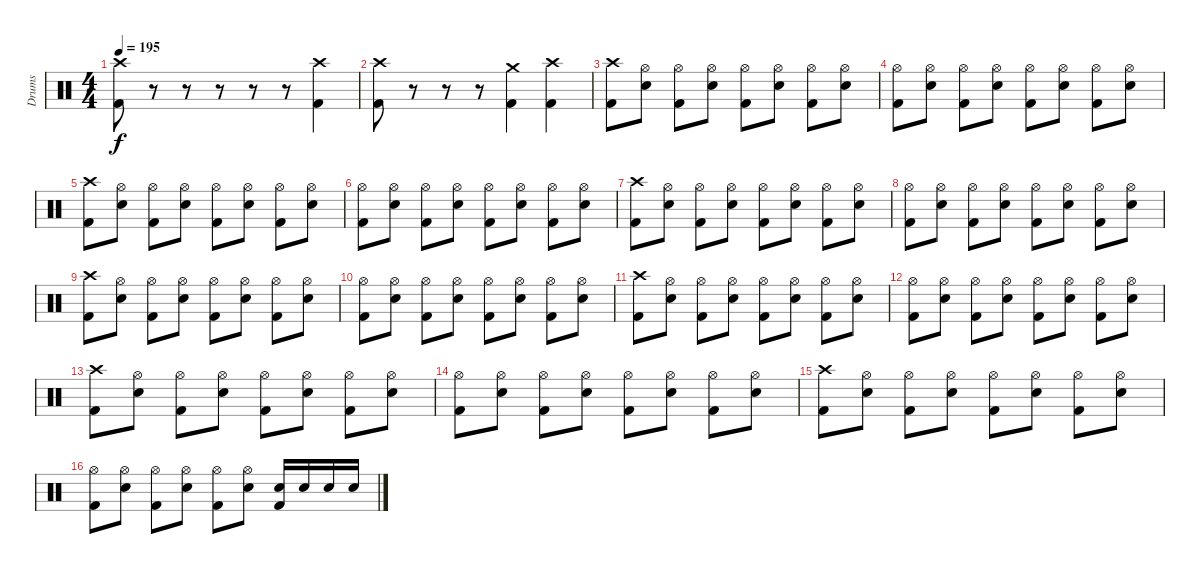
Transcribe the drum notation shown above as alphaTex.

\track ("Drums" "Drums") {instrument percussion}
\staff {score}
\articulation defaults
\ts (4 4)
\tempo 195
\clef neutral
\ks c
("Crash high (hit)" "Kick (hit) 2").8{dy f} r.8 r.8 r.8 r.8 r.8 ("Crash high (hit)" "Kick (hit) 2").4 |
("Crash high (hit)" "Kick (hit) 2").8 r.8 r.8 r.8 ("Crash medium (hit)" "Kick (hit) 2").4 ("Crash high (hit)" "Kick (hit) 2").4 |
("Crash high (hit)" "Kick (hit) 2").8 ("Hi-Hat (open)" "Snare (hit) 2").8 ("Hi-Hat (open)" "Kick (hit) 2").8 ("Hi-Hat (open)" "Snare (hit) 2").8 ("Hi-Hat (open)" "Kick (hit) 2").8 ("Hi-Hat (open)" "Snare (hit) 2").8 ("Hi-Hat (open)" "Kick (hit) 2").8 ("Hi-Hat (open)" "Snare (hit) 2").8 |
("Hi-Hat (open)" "Kick (hit) 2").8 ("Hi-Hat (open)" "Snare (hit) 2").8 ("Hi-Hat (open)" "Kick (hit) 2").8 ("Hi-Hat (open)" "Snare (hit) 2").8 ("Hi-Hat (open)" "Kick (hit) 2").8 ("Hi-Hat (open)" "Snare (hit) 2").8 ("Hi-Hat (open)" "Kick (hit) 2").8 ("Hi-Hat (open)" "Snare (hit) 2").8 |
("Crash high (hit)" "Kick (hit) 2").8 ("Hi-Hat (open)" "Snare (hit) 2").8 ("Hi-Hat (open)" "Kick (hit) 2").8 ("Hi-Hat (open)" "Snare (hit) 2").8 ("Hi-Hat (open)" "Kick (hit) 2").8 ("Hi-Hat (open)" "Snare (hit) 2").8 ("Hi-Hat (open)" "Kick (hit) 2").8 ("Hi-Hat (open)" "Snare (hit) 2").8 |
("Hi-Hat (open)" "Kick (hit) 2").8 ("Hi-Hat (open)" "Snare (hit) 2").8 ("Hi-Hat (open)" "Kick (hit) 2").8 ("Hi-Hat (open)" "Snare (hit) 2").8 ("Hi-Hat (open)" "Kick (hit) 2").8 ("Hi-Hat (open)" "Snare (hit) 2").8 ("Hi-Hat (open)" "Kick (hit) 2").8 ("Hi-Hat (open)" "Snare (hit) 2").8 |
("Crash high (hit)" "Kick (hit) 2").8 ("Hi-Hat (open)" "Snare (hit) 2").8 ("Hi-Hat (open)" "Kick (hit) 2").8 ("Hi-Hat (open)" "Snare (hit) 2").8 ("Hi-Hat (open)" "Kick (hit) 2").8 ("Hi-Hat (open)" "Snare (hit) 2").8 ("Hi-Hat (open)" "Kick (hit) 2").8 ("Hi-Hat (open)" "Snare (hit) 2").8 |
("Hi-Hat (open)" "Kick (hit) 2").8 ("Hi-Hat (open)" "Snare (hit) 2").8 ("Hi-Hat (open)" "Kick (hit) 2").8 ("Hi-Hat (open)" "Snare (hit) 2").8 ("Hi-Hat (open)" "Kick (hit) 2").8 ("Hi-Hat (open)" "Snare (hit) 2").8 ("Hi-Hat (open)" "Kick (hit) 2").8 ("Hi-Hat (open)" "Snare (hit) 2").8 |
("Crash high (hit)" "Kick (hit) 2").8 ("Hi-Hat (open)" "Snare (hit) 2").8 ("Hi-Hat (open)" "Kick (hit) 2").8 ("Hi-Hat (open)" "Snare (hit) 2").8 ("Hi-Hat (open)" "Kick (hit) 2").8 ("Hi-Hat (open)" "Snare (hit) 2").8 ("Hi-Hat (open)" "Kick (hit) 2").8 ("Hi-Hat (open)" "Snare (hit) 2").8 |
("Hi-Hat (open)" "Kick (hit) 2").8 ("Hi-Hat (open)" "Snare (hit) 2").8 ("Hi-Hat (open)" "Kick (hit) 2").8 ("Hi-Hat (open)" "Snare (hit) 2").8 ("Hi-Hat (open)" "Kick (hit) 2").8 ("Hi-Hat (open)" "Snare (hit) 2").8 ("Hi-Hat (open)" "Kick (hit) 2").8 ("Hi-Hat (open)" "Snare (hit) 2").8 |
("Crash high (hit)" "Kick (hit) 2").8 ("Hi-Hat (open)" "Snare (hit) 2").8 ("Hi-Hat (open)" "Kick (hit) 2").8 ("Hi-Hat (open)" "Snare (hit) 2").8 ("Hi-Hat (open)" "Kick (hit) 2").8 ("Hi-Hat (open)" "Snare (hit) 2").8 ("Hi-Hat (open)" "Kick (hit) 2").8 ("Hi-Hat (open)" "Snare (hit) 2").8 |
("Hi-Hat (open)" "Kick (hit) 2").8 ("Hi-Hat (open)" "Snare (hit) 2").8 ("Hi-Hat (open)" "Kick (hit) 2").8 ("Hi-Hat (open)" "Snare (hit) 2").8 ("Hi-Hat (open)" "Kick (hit) 2").8 ("Hi-Hat (open)" "Snare (hit) 2").8 ("Hi-Hat (open)" "Kick (hit) 2").8 ("Hi-Hat (open)" "Snare (hit) 2").8 |
("Crash high (hit)" "Kick (hit) 2").8 ("Hi-Hat (open)" "Snare (hit) 2").8 ("Hi-Hat (open)" "Kick (hit) 2").8 ("Hi-Hat (open)" "Snare (hit) 2").8 ("Hi-Hat (open)" "Kick (hit) 2").8 ("Hi-Hat (open)" "Snare (hit) 2").8 ("Hi-Hat (open)" "Kick (hit) 2").8 ("Hi-Hat (open)" "Snare (hit) 2").8 |
("Hi-Hat (open)" "Kick (hit) 2").8 ("Hi-Hat (open)" "Snare (hit) 2").8 ("Hi-Hat (open)" "Kick (hit) 2").8 ("Hi-Hat (open)" "Snare (hit) 2").8 ("Hi-Hat (open)" "Kick (hit) 2").8 ("Hi-Hat (open)" "Snare (hit) 2").8 ("Hi-Hat (open)" "Kick (hit) 2").8 ("Hi-Hat (open)" "Snare (hit) 2").8 |
("Crash high (hit)" "Kick (hit) 2").8 ("Hi-Hat (open)" "Snare (hit) 2").8 ("Hi-Hat (open)" "Kick (hit) 2").8 ("Hi-Hat (open)" "Snare (hit) 2").8 ("Hi-Hat (open)" "Kick (hit) 2").8 ("Hi-Hat (open)" "Snare (hit) 2").8 ("Hi-Hat (open)" "Kick (hit) 2").8 ("Hi-Hat (open)" "Snare (hit) 2").8 |
("Hi-Hat (open)" "Kick (hit) 2").8 ("Hi-Hat (open)" "Snare (hit) 2").8 ("Hi-Hat (open)" "Kick (hit) 2").8 ("Hi-Hat (open)" "Snare (hit) 2").8 ("Hi-Hat (open)" "Kick (hit) 2").8 ("Hi-Hat (open)" "Snare (hit) 2").8 ("Snare (hit) 2" "Kick (hit) 2").16 "Snare (hit) 2".16 "Snare (hit) 2".16 "Snare (hit) 2".16
